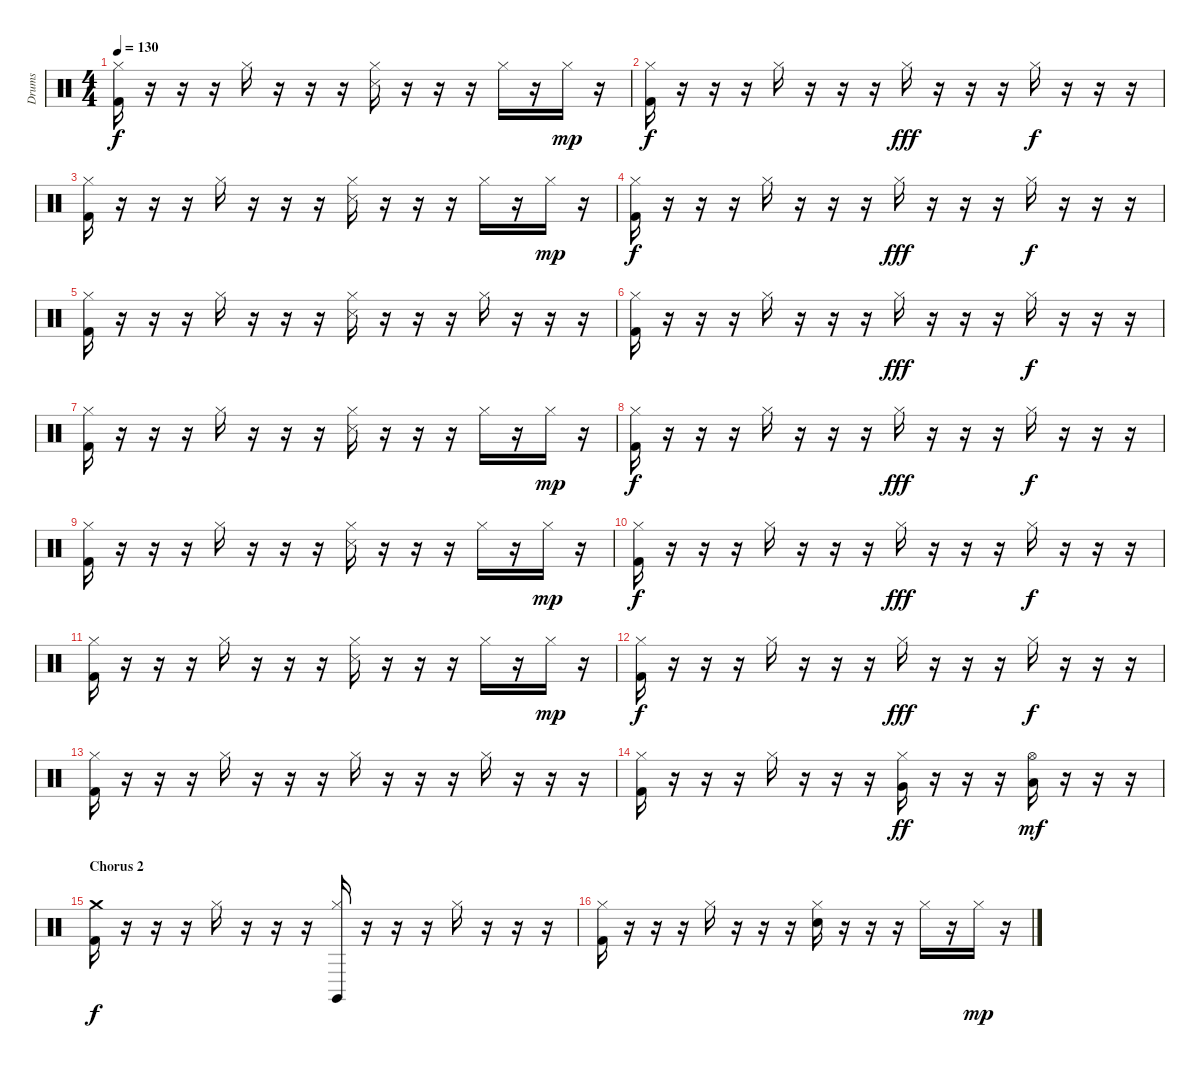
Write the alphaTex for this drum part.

\track ("Drums" "Drums") {instrument percussion}
\staff {score}
\articulation defaults
\ts (4 4)
\tempo 130
\clef neutral
\ks c
("Hi-Hat (closed)" "Kick (hit) 2").16{dy f} r.16 r.16 r.16 "Hi-Hat (closed)".16 r.16 r.16 r.16 ("Hi-Hat (closed)" "Snare (side stick) 3").16 r.16 r.16 r.16 "Hi-Hat (closed)".16 r.16 "Hi-Hat (closed)".16{dy mp} r.16 |
("Hi-Hat (closed)" "Kick (hit) 2").16{dy f} r.16 r.16 r.16 "Hi-Hat (closed)".16 r.16 r.16 r.16 "Hi-Hat (closed)".16{dy fff} r.16 r.16 r.16 "Hi-Hat (closed)".16{dy f} r.16 r.16 r.16 |
("Hi-Hat (closed)" "Kick (hit) 2").16 r.16 r.16 r.16 "Hi-Hat (closed)".16 r.16 r.16 r.16 ("Hi-Hat (closed)" "Snare (side stick) 3").16 r.16 r.16 r.16 "Hi-Hat (closed)".16 r.16 "Hi-Hat (closed)".16{dy mp} r.16 |
("Hi-Hat (closed)" "Kick (hit) 2").16{dy f} r.16 r.16 r.16 "Hi-Hat (closed)".16 r.16 r.16 r.16 "Hi-Hat (closed)".16{dy fff} r.16 r.16 r.16 "Hi-Hat (closed)".16{dy f} r.16 r.16 r.16 |
("Hi-Hat (closed)" "Kick (hit) 2").16 r.16 r.16 r.16 "Hi-Hat (closed)".16 r.16 r.16 r.16 ("Hi-Hat (closed)" "Snare (side stick) 3").16 r.16 r.16 r.16 "Hi-Hat (closed)".16 r.16 r.16 r.16 |
("Hi-Hat (closed)" "Kick (hit) 2").16 r.16 r.16 r.16 "Hi-Hat (closed)".16 r.16 r.16 r.16 "Hi-Hat (closed)".16{dy fff} r.16 r.16 r.16 "Hi-Hat (closed)".16{dy f} r.16 r.16 r.16 |
("Hi-Hat (closed)" "Kick (hit) 2").16 r.16 r.16 r.16 "Hi-Hat (closed)".16 r.16 r.16 r.16 ("Hi-Hat (closed)" "Snare (side stick) 3").16 r.16 r.16 r.16 "Hi-Hat (closed)".16 r.16 "Hi-Hat (closed)".16{dy mp} r.16 |
("Hi-Hat (closed)" "Kick (hit) 2").16{dy f} r.16 r.16 r.16 "Hi-Hat (closed)".16 r.16 r.16 r.16 "Hi-Hat (closed)".16{dy fff} r.16 r.16 r.16 "Hi-Hat (closed)".16{dy f} r.16 r.16 r.16 |
("Hi-Hat (closed)" "Kick (hit) 2").16 r.16 r.16 r.16 "Hi-Hat (closed)".16 r.16 r.16 r.16 ("Hi-Hat (closed)" "Snare (side stick) 3").16 r.16 r.16 r.16 "Hi-Hat (closed)".16 r.16 "Hi-Hat (closed)".16{dy mp} r.16 |
("Hi-Hat (closed)" "Kick (hit) 2").16{dy f} r.16 r.16 r.16 "Hi-Hat (closed)".16 r.16 r.16 r.16 "Hi-Hat (closed)".16{dy fff} r.16 r.16 r.16 "Hi-Hat (closed)".16{dy f} r.16 r.16 r.16 |
("Hi-Hat (closed)" "Kick (hit) 2").16 r.16 r.16 r.16 "Hi-Hat (closed)".16 r.16 r.16 r.16 ("Hi-Hat (closed)" "Snare (side stick) 3").16 r.16 r.16 r.16 "Hi-Hat (closed)".16 r.16 "Hi-Hat (closed)".16{dy mp} r.16 |
("Hi-Hat (closed)" "Kick (hit) 2").16{dy f} r.16 r.16 r.16 "Hi-Hat (closed)".16 r.16 r.16 r.16 "Hi-Hat (closed)".16{dy fff} r.16 r.16 r.16 "Hi-Hat (closed)".16{dy f} r.16 r.16 r.16 |
("Hi-Hat (closed)" "Kick (hit) 2").16 r.16 r.16 r.16 "Hi-Hat (closed)".16 r.16 r.16 r.16 "Hi-Hat (closed)".16 r.16 r.16 r.16 "Hi-Hat (closed)".16 r.16 r.16 r.16 |
("Hi-Hat (closed)" "Kick (hit) 2").16 r.16 r.16 r.16 "Hi-Hat (closed)".16 r.16 r.16 r.16 ("Hi-Hat (closed)" "Very Low Tom (hit)").16{dy ff} r.16 r.16 r.16 ("Hi-Hat (open)" "Low Floor Tom (hit)").16{dy mf} r.16 r.16 r.16 |
\section ("" "Chorus 2")
("Crash medium (hit)" "Kick (hit) 2").16{dy f} r.16 r.16 r.16 "Hi-Hat (closed)".16 r.16 r.16 r.16 ("Hi-Hat (closed)" "Claves (hit)").16 r.16 r.16 r.16 "Hi-Hat (closed)".16 r.16 r.16 r.16 |
("Hi-Hat (closed)" "Kick (hit) 2").16 r.16 r.16 r.16 "Hi-Hat (closed)".16 r.16 r.16 r.16 ("Hi-Hat (closed)" "Snare (hit) 2").16 r.16 r.16 r.16 "Hi-Hat (closed)".16 r.16 "Hi-Hat (closed)".16{dy mp} r.16
